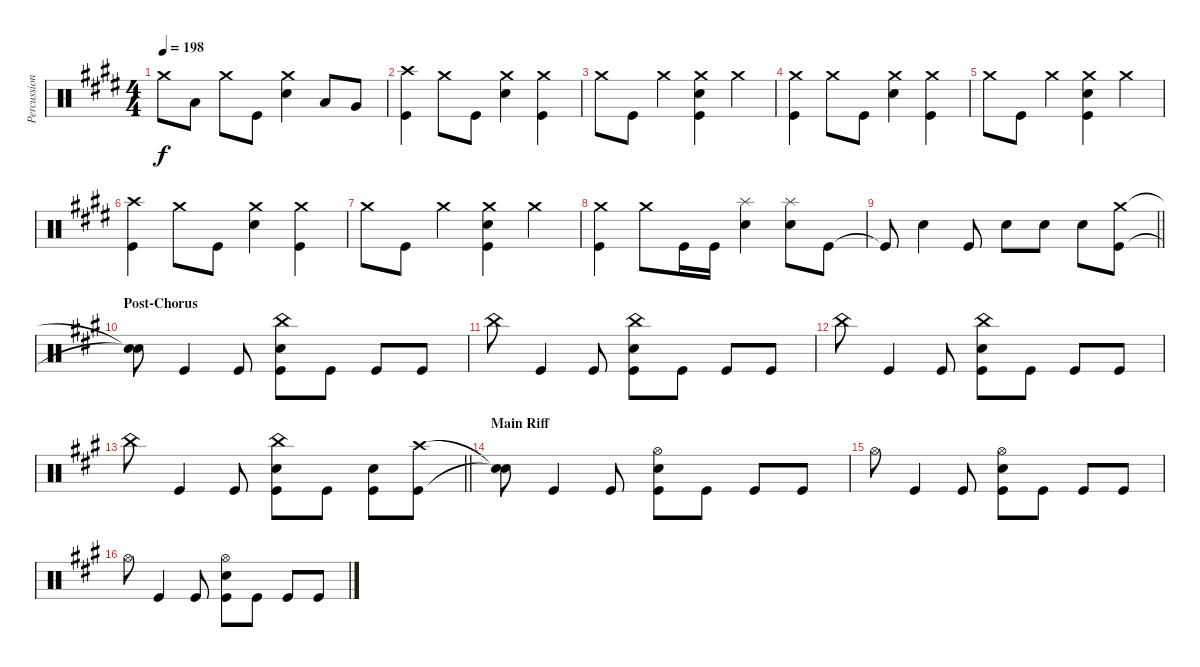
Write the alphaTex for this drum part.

\track ("Percussion" "Percussion") {instrument percussion}
\staff {score}
\articulation defaults
\ts (4 4)
\tempo 198
\clef neutral
\ks e "Crash medium (hit)".8{dy f} "Low Tom (hit)".8 "Crash medium (hit)".8 "Kick (hit)".8
("Crash medium (hit)" "Electric Snare (hit)").4 "Low Tom (hit)".8 "Very Low Tom (hit)".8 |
("Crash high (hit)" "Kick (hit)").4 "Crash medium (hit)".8 "Kick (hit)".8 ("Crash medium (hit)" "Electric Snare (hit)").4 ("Crash medium (hit)" "Kick (hit)").4 |
"Crash medium (hit)".8 "Kick (hit)".8 "Crash medium (hit)".4 ("Crash medium (hit)" "Electric Snare (hit)" "Kick (hit)").4 "Crash medium (hit)".4 |
("Crash medium (hit)" "Kick (hit)").4 "Crash medium (hit)".8 "Kick (hit)".8 ("Crash medium (hit)" "Electric Snare (hit)").4 ("Crash medium (hit)" "Kick (hit)").4 |
"Crash medium (hit)".8 "Kick (hit)".8 "Crash medium (hit)".4 ("Crash medium (hit)" "Electric Snare (hit)" "Kick (hit)").4 "Crash medium (hit)".4 |
("Crash high (hit)" "Kick (hit)").4 "Crash medium (hit)".8 "Kick (hit)".8 ("Crash medium (hit)" "Electric Snare (hit)").4 ("Crash medium (hit)" "Kick (hit)").4 |
"Crash medium (hit)".8 "Kick (hit)".8 "Crash medium (hit)".4 ("Crash medium (hit)" "Electric Snare (hit)" "Kick (hit)").4 "Crash medium (hit)".4 |
("Crash medium (hit)" "Kick (hit)").4 "Crash medium (hit)".8 "Kick (hit)".16 "Kick (hit)".16 ("Splash (hit)" "Electric Snare (hit)").4 ("Splash (hit)" "Electric Snare (hit)").8 "Kick (hit)".8 |
\barLineRight lightlight "Kick (hit)"{t}.8 "Electric Snare (hit)".4 "Kick (hit)".8 "Electric Snare (hit)".8 "Electric Snare (hit)".8 "Electric Snare (hit)".8
("Crash medium (hit)" "Kick (hit)").8 |
\section ("" "Post-Chorus")
\ks a
("Snare (hit)"{t} "Snare (hit)"{t}).8 "Kick (hit)".4 "Kick (hit)".8 ("China (hit)" "Electric Snare (hit)" "Kick (hit)").8 "Kick (hit)".8 "Kick (hit)".8 "Kick (hit)".8 |
"China (hit)".8 "Kick (hit)".4 "Kick (hit)".8 ("China (hit)" "Electric Snare (hit)" "Kick (hit)").8 "Kick (hit)".8 "Kick (hit)".8 "Kick (hit)".8 |
"China (hit)".8 "Kick (hit)".4 "Kick (hit)".8 ("China (hit)" "Electric Snare (hit)" "Kick (hit)").8 "Kick (hit)".8 "Kick (hit)".8 "Kick (hit)".8 |
\barLineRight lightlight "China (hit)".8 "Kick (hit)".4 "Kick (hit)".8
("China (hit)" "Electric Snare (hit)" "Kick (hit)").8 "Kick (hit)".8 ("Electric Snare (hit)" "Kick (hit)").8 ("Crash high (hit)" "Kick (hit)").8 |
\section ("" "Main Riff")
("Snare (hit)"{t} "Snare (hit)"{t}).8 "Kick (hit)".4 "Kick (hit)".8 ("Hi-Hat (open)" "Electric Snare (hit)" "Kick (hit)").8 "Kick (hit)".8 "Kick (hit)".8 "Kick (hit)".8 |
"Hi-Hat (open)".8 "Kick (hit)".4 "Kick (hit)".8 ("Hi-Hat (open)" "Electric Snare (hit)" "Kick (hit)").8 "Kick (hit)".8 "Kick (hit)".8 "Kick (hit)".8 |
"Hi-Hat (open)".8 "Kick (hit)".4 "Kick (hit)".8 ("Hi-Hat (open)" "Electric Snare (hit)" "Kick (hit)").8 "Kick (hit)".8 "Kick (hit)".8 "Kick (hit)".8
